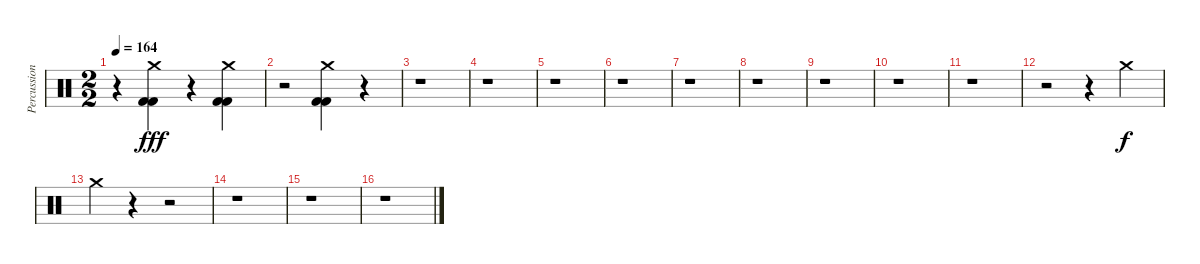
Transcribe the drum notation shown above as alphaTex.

\track ("Percussion" "Percussion") {instrument percussion}
\staff {score}
\articulation defaults
\ts (2 2)
\tempo 164
\clef neutral
\ks c
r.4{dy fff} ("Crash medium (hit)" "Kick (hit) 2" "Kick (hit) 2").4 r.4 ("Crash medium (hit)" "Kick (hit) 2" "Kick (hit) 2").4 |
r.2 ("Crash medium (hit)" "Kick (hit) 2" "Kick (hit) 2").4 r.4 |
r.1 |
r.1 |
r.1 |
r.1 |
r.1 |
r.1 |
r.1 |
r.1 |
r.1 |
r.2 r.4 "Crash medium (hit)".4{dy f} |
"Crash medium (hit)".4 r.4 r.2 |
r.1 |
r.1 |
r.1
